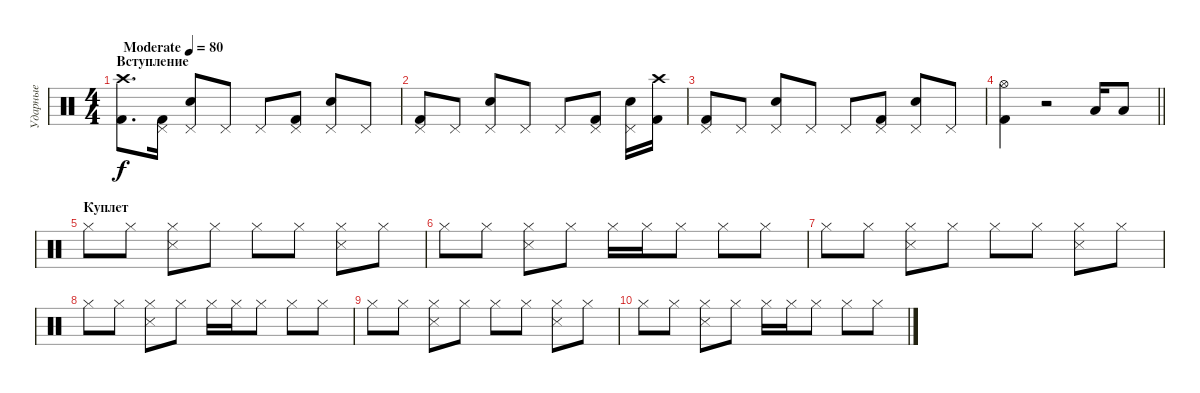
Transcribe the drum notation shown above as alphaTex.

\track ("Ударные" "Ударные") {instrument percussion}
\staff {score}
\articulation defaults
\ts (4 4)
\section ("" "Вступление")
\tempo (80 "Moderate")
\clef neutral
\ks c
("Crash high (hit)" "Kick (hit) 2").8{d dy f} ("Pedal Hi-Hat (hit)" "Kick (hit) 2").16 ("Snare (hit) 2" "Pedal Hi-Hat (hit)").8 "Pedal Hi-Hat (hit)".8 "Pedal Hi-Hat (hit)".8 ("Pedal Hi-Hat (hit)" "Kick (hit) 2").8 ("Snare (hit) 2" "Pedal Hi-Hat (hit)").8 "Pedal Hi-Hat (hit)".8 |
("Pedal Hi-Hat (hit)" "Kick (hit) 2").8 "Pedal Hi-Hat (hit)".8 ("Snare (hit) 2" "Pedal Hi-Hat (hit)").8 "Pedal Hi-Hat (hit)".8 "Pedal Hi-Hat (hit)".8 ("Pedal Hi-Hat (hit)" "Kick (hit) 2").8 ("Snare (hit) 2" "Pedal Hi-Hat (hit)").16 ("Crash high (hit)" "Kick (hit) 2").16 |
("Pedal Hi-Hat (hit)" "Kick (hit) 2").8 "Pedal Hi-Hat (hit)".8 ("Snare (hit) 2" "Pedal Hi-Hat (hit)").8 "Pedal Hi-Hat (hit)".8 "Pedal Hi-Hat (hit)".8 ("Pedal Hi-Hat (hit)" "Kick (hit) 2").8 ("Snare (hit) 2" "Pedal Hi-Hat (hit)").8 "Pedal Hi-Hat (hit)".8 |
\barLineRight lightlight
("Hi-Hat (open)" "Kick (hit) 2").4 r.2 "Low Tom (hit)".16 "Low Tom (hit)".8 |
\section ("" "Куплет")
"Hi-Hat (closed)".8 "Hi-Hat (closed)".8 ("Hi-Hat (closed)" "Metronome (hit)").8 "Hi-Hat (closed)".8 "Hi-Hat (closed)".8 "Hi-Hat (closed)".8 ("Hi-Hat (closed)" "Metronome (hit)").8 "Hi-Hat (closed)".8 |
"Hi-Hat (closed)".8 "Hi-Hat (closed)".8 ("Hi-Hat (closed)" "Metronome (hit)").8 "Hi-Hat (closed)".8 "Hi-Hat (closed)".16 "Hi-Hat (closed)".16 "Hi-Hat (closed)".8 "Hi-Hat (closed)".8 "Hi-Hat (closed)".8 |
"Hi-Hat (closed)".8 "Hi-Hat (closed)".8 ("Hi-Hat (closed)" "Metronome (hit)").8 "Hi-Hat (closed)".8 "Hi-Hat (closed)".8 "Hi-Hat (closed)".8 ("Hi-Hat (closed)" "Metronome (hit)").8 "Hi-Hat (closed)".8 |
"Hi-Hat (closed)".8 "Hi-Hat (closed)".8 ("Hi-Hat (closed)" "Metronome (hit)").8 "Hi-Hat (closed)".8 "Hi-Hat (closed)".16 "Hi-Hat (closed)".16 "Hi-Hat (closed)".8 "Hi-Hat (closed)".8 "Hi-Hat (closed)".8 |
"Hi-Hat (closed)".8 "Hi-Hat (closed)".8 ("Hi-Hat (closed)" "Metronome (hit)").8 "Hi-Hat (closed)".8 "Hi-Hat (closed)".8 "Hi-Hat (closed)".8 ("Hi-Hat (closed)" "Metronome (hit)").8 "Hi-Hat (closed)".8 |
"Hi-Hat (closed)".8 "Hi-Hat (closed)".8 ("Hi-Hat (closed)" "Metronome (hit)").8 "Hi-Hat (closed)".8 "Hi-Hat (closed)".16 "Hi-Hat (closed)".16 "Hi-Hat (closed)".8 "Hi-Hat (closed)".8 "Hi-Hat (closed)".8
